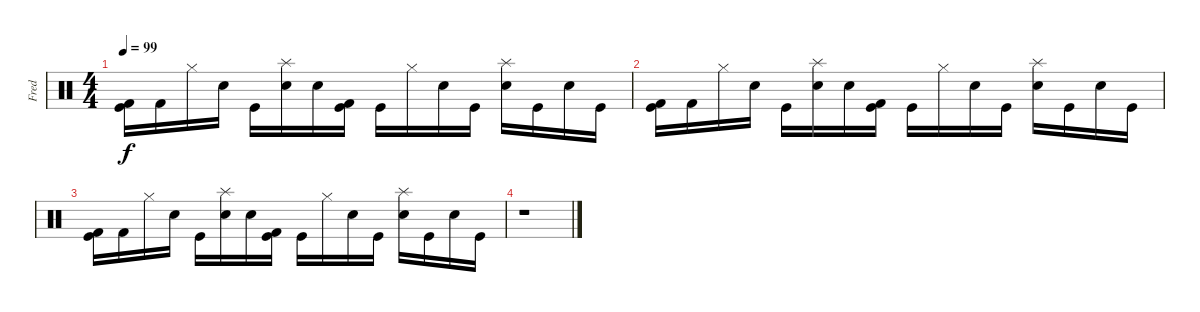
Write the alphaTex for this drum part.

\track ("Fred" "Fred") {instrument percussion}
\staff {score}
\articulation defaults
\ts (4 4)
\tempo 99
\clef neutral
\ks c
("Kick (hit) 2" "Kick (hit)").16{dy f} "Kick (hit) 2".16 "Hi-Hat (closed)".16 "Snare (hit)".16 "Kick (hit)".16 ("Snare (hit) 2" "Splash (hit)").16 "Snare (hit)".16 ("Kick (hit) 2" "Kick (hit)").16 "Kick (hit)".16 "Hi-Hat (closed)".16 "Snare (hit)".16 "Kick (hit)".16 ("Snare (hit) 2" "Splash (hit)").16 "Kick (hit)".16 "Snare (hit)".16 "Kick (hit)".16 |
("Kick (hit) 2" "Kick (hit)").16 "Kick (hit) 2".16 "Hi-Hat (closed)".16 "Snare (hit)".16 "Kick (hit)".16 ("Snare (hit) 2" "Splash (hit)").16 "Snare (hit)".16 ("Kick (hit) 2" "Kick (hit)").16 "Kick (hit)".16 "Hi-Hat (closed)".16 "Snare (hit)".16 "Kick (hit)".16 ("Snare (hit) 2" "Splash (hit)").16 "Kick (hit)".16 "Snare (hit)".16 "Kick (hit)".16 |
("Kick (hit) 2" "Kick (hit)").16 "Kick (hit) 2".16 "Hi-Hat (closed)".16 "Snare (hit)".16 "Kick (hit)".16 ("Snare (hit) 2" "Splash (hit)").16 "Snare (hit)".16 ("Kick (hit) 2" "Kick (hit)").16 "Kick (hit)".16 "Hi-Hat (closed)".16 "Snare (hit)".16 "Kick (hit)".16 ("Snare (hit) 2" "Splash (hit)").16 "Kick (hit)".16 "Snare (hit)".16 "Kick (hit)".16 |
r.1
